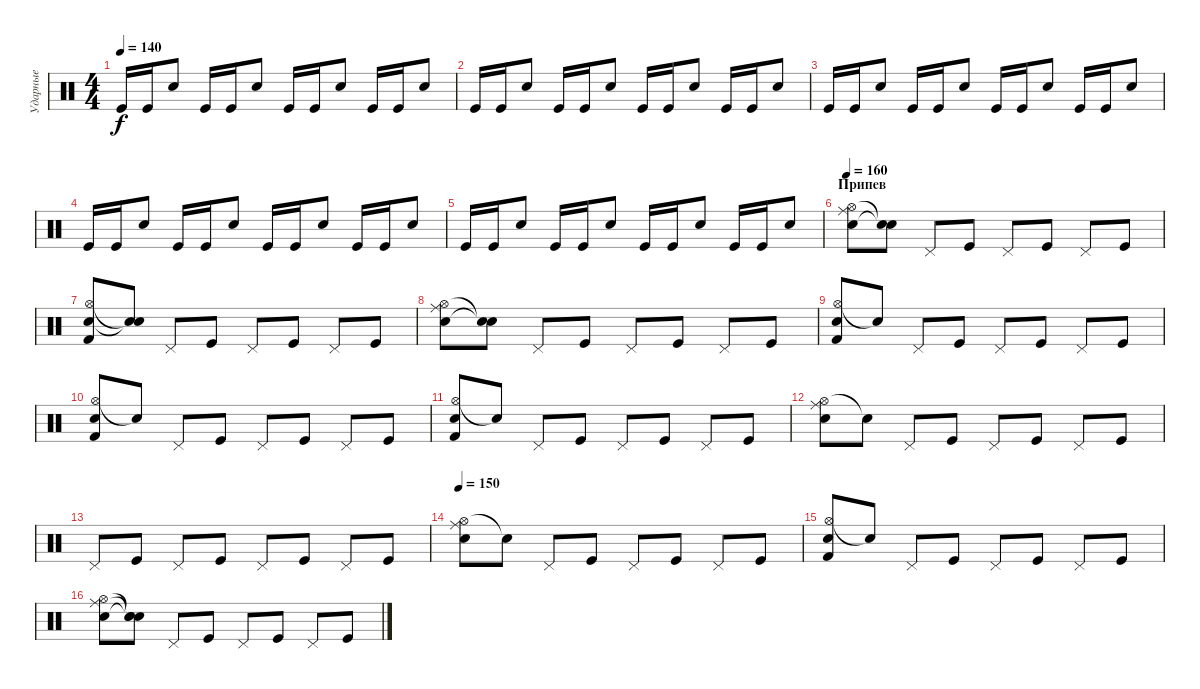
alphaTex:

\track ("Ударные" "Ударные") {instrument percussion}
\staff {score}
\articulation defaults
\ts (4 4)
\tempo 140
\clef neutral
\ks c "Kick (hit)".16{dy f} "Kick (hit)".16 "Electric Snare (hit)".8 "Kick (hit)".16 "Kick (hit)".16 "Electric Snare (hit)".8 "Kick (hit)".16 "Kick (hit)".16 "Electric Snare (hit)".8 "Kick (hit)".16 "Kick (hit)".16 "Electric Snare (hit)".8
|
"Kick (hit)".16 "Kick (hit)".16 "Electric Snare (hit)".8 "Kick (hit)".16 "Kick (hit)".16 "Electric Snare (hit)".8 "Kick (hit)".16 "Kick (hit)".16 "Electric Snare (hit)".8 "Kick (hit)".16 "Kick (hit)".16 "Electric Snare (hit)".8 |
"Kick (hit)".16 "Kick (hit)".16 "Electric Snare (hit)".8 "Kick (hit)".16 "Kick (hit)".16 "Electric Snare (hit)".8 "Kick (hit)".16 "Kick (hit)".16 "Electric Snare (hit)".8 "Kick (hit)".16 "Kick (hit)".16 "Electric Snare (hit)".8 |
"Kick (hit)".16 "Kick (hit)".16 "Electric Snare (hit)".8 "Kick (hit)".16 "Kick (hit)".16 "Electric Snare (hit)".8 "Kick (hit)".16 "Kick (hit)".16 "Electric Snare (hit)".8 "Kick (hit)".16 "Kick (hit)".16 "Electric Snare (hit)".8 |
"Kick (hit)".16 "Kick (hit)".16 "Electric Snare (hit)".8 "Kick (hit)".16 "Kick (hit)".16 "Electric Snare (hit)".8 "Kick (hit)".16 "Kick (hit)".16 "Electric Snare (hit)".8 "Kick (hit)".16 "Kick (hit)".16 "Electric Snare (hit)".8 |
\section ("" "Припев")
\tempo 150
\tempo 160
("Hi-Hat (open)" "Electric Snare (hit)" "Ride (middle)").8 ("Electric Snare (hit)"{t} "Snare (hit)"{t}).8 "Pedal Hi-Hat (hit)".8 "Kick (hit)".8 "Pedal Hi-Hat (hit)".8 "Kick (hit)".8 "Pedal Hi-Hat (hit)".8 "Kick (hit)".8 |
("Hi-Hat (open)" "Electric Snare (hit)" "Kick (hit) 2").8 ("Electric Snare (hit)"{t} "Snare (hit)"{t}).8 "Pedal Hi-Hat (hit)".8 "Kick (hit)".8 "Pedal Hi-Hat (hit)".8 "Kick (hit)".8 "Pedal Hi-Hat (hit)".8 "Kick (hit)".8 |
("Hi-Hat (open)" "Electric Snare (hit)" "Ride (middle)").8 ("Electric Snare (hit)"{t} "Snare (hit)"{t}).8 "Pedal Hi-Hat (hit)".8 "Kick (hit)".8 "Pedal Hi-Hat (hit)".8 "Kick (hit)".8 "Pedal Hi-Hat (hit)".8 "Kick (hit)".8 |
("Hi-Hat (open)" "Electric Snare (hit)" "Kick (hit) 2").8 "Electric Snare (hit)"{t}.8 "Pedal Hi-Hat (hit)".8 "Kick (hit)".8 "Pedal Hi-Hat (hit)".8 "Kick (hit)".8 "Pedal Hi-Hat (hit)".8 "Kick (hit)".8 |
("Hi-Hat (open)" "Electric Snare (hit)" "Kick (hit) 2").8 "Electric Snare (hit)"{t}.8 "Pedal Hi-Hat (hit)".8 "Kick (hit)".8 "Pedal Hi-Hat (hit)".8 "Kick (hit)".8 "Pedal Hi-Hat (hit)".8 "Kick (hit)".8 |
("Hi-Hat (open)" "Electric Snare (hit)" "Kick (hit) 2").8 "Electric Snare (hit)"{t}.8 "Pedal Hi-Hat (hit)".8 "Kick (hit)".8 "Pedal Hi-Hat (hit)".8 "Kick (hit)".8 "Pedal Hi-Hat (hit)".8 "Kick (hit)".8 |
("Hi-Hat (open)" "Electric Snare (hit)" "Ride (middle)").8 "Electric Snare (hit)"{t}.8 "Pedal Hi-Hat (hit)".8 "Kick (hit)".8 "Pedal Hi-Hat (hit)".8 "Kick (hit)".8 "Pedal Hi-Hat (hit)".8 "Kick (hit)".8 |
"Pedal Hi-Hat (hit)".8 "Kick (hit)".8 "Pedal Hi-Hat (hit)".8 "Kick (hit)".8 "Pedal Hi-Hat (hit)".8 "Kick (hit)".8 "Pedal Hi-Hat (hit)".8 "Kick (hit)".8 |
\tempo 150
("Hi-Hat (open)" "Electric Snare (hit)" "Ride (middle)").8 "Electric Snare (hit)"{t}.8 "Pedal Hi-Hat (hit)".8 "Kick (hit)".8 "Pedal Hi-Hat (hit)".8 "Kick (hit)".8 "Pedal Hi-Hat (hit)".8 "Kick (hit)".8 |
("Hi-Hat (open)" "Electric Snare (hit)" "Kick (hit) 2").8 "Electric Snare (hit)"{t}.8 "Pedal Hi-Hat (hit)".8 "Kick (hit)".8 "Pedal Hi-Hat (hit)".8 "Kick (hit)".8 "Pedal Hi-Hat (hit)".8 "Kick (hit)".8 |
("Hi-Hat (open)" "Electric Snare (hit)" "Ride (middle)").8 ("Electric Snare (hit)"{t} "Snare (hit)"{t} "Snare (hit)"{t}).8 "Pedal Hi-Hat (hit)".8 "Kick (hit)".8 "Pedal Hi-Hat (hit)".8 "Kick (hit)".8 "Pedal Hi-Hat (hit)".8 "Kick (hit)".8
